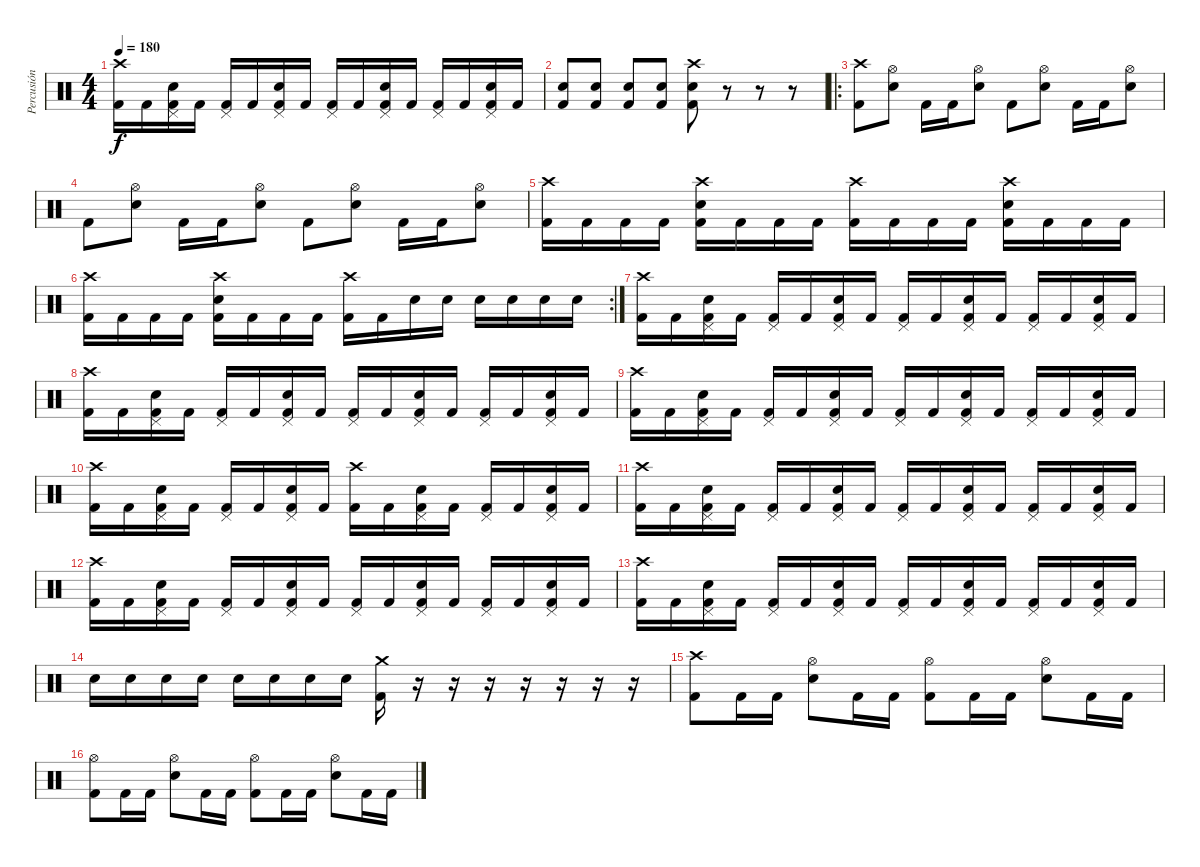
\track ("Percusión" "Percusión") {instrument percussion}
\staff {score}
\articulation defaults
\ts (4 4)
\tempo 180
\clef neutral
\ks c
("Crash high (hit)" "Kick (hit) 2").16{dy f} "Kick (hit) 2".16 ("Pedal Hi-Hat (hit)" "Kick (hit) 2" "Electric Snare (hit)").16 "Kick (hit) 2".16 ("Pedal Hi-Hat (hit)" "Kick (hit) 2").16 "Kick (hit) 2".16 ("Pedal Hi-Hat (hit)" "Kick (hit) 2" "Electric Snare (hit)").16 "Kick (hit) 2".16 ("Pedal Hi-Hat (hit)" "Kick (hit) 2").16 "Kick (hit) 2".16 ("Pedal Hi-Hat (hit)" "Kick (hit) 2" "Electric Snare (hit)").16 "Kick (hit) 2".16 ("Pedal Hi-Hat (hit)" "Kick (hit) 2").16 "Kick (hit) 2".16 ("Pedal Hi-Hat (hit)" "Kick (hit) 2" "Electric Snare (hit)").16 "Kick (hit) 2".16 |
("Kick (hit) 2" "Electric Snare (hit)").8 ("Kick (hit) 2" "Electric Snare (hit)").8 ("Kick (hit) 2" "Electric Snare (hit)").8 ("Kick (hit) 2" "Electric Snare (hit)").8 ("Crash high (hit)" "Kick (hit) 2" "Electric Snare (hit)").8 r.8 r.8 r.8 |
\ro
("Crash high (hit)" "Kick (hit) 2").8 ("Hi-Hat (open)" "Electric Snare (hit)").8 "Kick (hit) 2".16 "Kick (hit) 2".16 ("Hi-Hat (open)" "Electric Snare (hit)").8 "Kick (hit) 2".8 ("Hi-Hat (open)" "Electric Snare (hit)").8 "Kick (hit) 2".16 "Kick (hit) 2".16 ("Hi-Hat (open)" "Electric Snare (hit)").8 |
"Kick (hit) 2".8 ("Hi-Hat (open)" "Electric Snare (hit)").8 "Kick (hit) 2".16 "Kick (hit) 2".16 ("Hi-Hat (open)" "Electric Snare (hit)").8 "Kick (hit) 2".8 ("Hi-Hat (open)" "Electric Snare (hit)").8 "Kick (hit) 2".16 "Kick (hit) 2".16 ("Hi-Hat (open)" "Electric Snare (hit)").8 |
("Crash high (hit)" "Kick (hit) 2").16 "Kick (hit) 2".16 "Kick (hit) 2".16 "Kick (hit) 2".16 ("Crash high (hit)" "Kick (hit) 2" "Electric Snare (hit)").16 "Kick (hit) 2".16 "Kick (hit) 2".16 "Kick (hit) 2".16 ("Crash high (hit)" "Kick (hit) 2").16 "Kick (hit) 2".16 "Kick (hit) 2".16 "Kick (hit) 2".16 ("Crash high (hit)" "Kick (hit) 2" "Electric Snare (hit)").16 "Kick (hit) 2".16 "Kick (hit) 2".16 "Kick (hit) 2".16 |
\rc 2
("Crash high (hit)" "Kick (hit) 2").16 "Kick (hit) 2".16 "Kick (hit) 2".16 "Kick (hit) 2".16 ("Crash high (hit)" "Kick (hit) 2" "Electric Snare (hit)").16 "Kick (hit) 2".16 "Kick (hit) 2".16 "Kick (hit) 2".16 ("Crash high (hit)" "Kick (hit) 2").16 "Kick (hit) 2".16 "Electric Snare (hit)".16 "Electric Snare (hit)".16 "Electric Snare (hit)".16 "Electric Snare (hit)".16 "Electric Snare (hit)".16 "Electric Snare (hit)".16 |
("Crash high (hit)" "Kick (hit) 2").16 "Kick (hit) 2".16 ("Pedal Hi-Hat (hit)" "Kick (hit) 2" "Electric Snare (hit)").16 "Kick (hit) 2".16 ("Pedal Hi-Hat (hit)" "Kick (hit) 2").16 "Kick (hit) 2".16 ("Pedal Hi-Hat (hit)" "Kick (hit) 2" "Electric Snare (hit)").16 "Kick (hit) 2".16 ("Pedal Hi-Hat (hit)" "Kick (hit) 2").16 "Kick (hit) 2".16 ("Pedal Hi-Hat (hit)" "Kick (hit) 2" "Electric Snare (hit)").16 "Kick (hit) 2".16 ("Pedal Hi-Hat (hit)" "Kick (hit) 2").16 "Kick (hit) 2".16 ("Pedal Hi-Hat (hit)" "Kick (hit) 2" "Electric Snare (hit)").16 "Kick (hit) 2".16 |
("Crash high (hit)" "Kick (hit) 2").16 "Kick (hit) 2".16 ("Pedal Hi-Hat (hit)" "Kick (hit) 2" "Electric Snare (hit)").16 "Kick (hit) 2".16 ("Pedal Hi-Hat (hit)" "Kick (hit) 2").16 "Kick (hit) 2".16 ("Pedal Hi-Hat (hit)" "Kick (hit) 2" "Electric Snare (hit)").16 "Kick (hit) 2".16 ("Pedal Hi-Hat (hit)" "Kick (hit) 2").16 "Kick (hit) 2".16 ("Pedal Hi-Hat (hit)" "Kick (hit) 2" "Electric Snare (hit)").16 "Kick (hit) 2".16 ("Pedal Hi-Hat (hit)" "Kick (hit) 2").16 "Kick (hit) 2".16 ("Pedal Hi-Hat (hit)" "Kick (hit) 2" "Electric Snare (hit)").16 "Kick (hit) 2".16 |
("Crash high (hit)" "Kick (hit) 2").16 "Kick (hit) 2".16 ("Pedal Hi-Hat (hit)" "Kick (hit) 2" "Electric Snare (hit)").16 "Kick (hit) 2".16 ("Pedal Hi-Hat (hit)" "Kick (hit) 2").16 "Kick (hit) 2".16 ("Pedal Hi-Hat (hit)" "Kick (hit) 2" "Electric Snare (hit)").16 "Kick (hit) 2".16 ("Pedal Hi-Hat (hit)" "Kick (hit) 2").16 "Kick (hit) 2".16 ("Pedal Hi-Hat (hit)" "Kick (hit) 2" "Electric Snare (hit)").16 "Kick (hit) 2".16 ("Pedal Hi-Hat (hit)" "Kick (hit) 2").16 "Kick (hit) 2".16 ("Pedal Hi-Hat (hit)" "Kick (hit) 2" "Electric Snare (hit)").16 "Kick (hit) 2".16 |
("Crash high (hit)" "Kick (hit) 2").16 "Kick (hit) 2".16 ("Pedal Hi-Hat (hit)" "Kick (hit) 2" "Electric Snare (hit)").16 "Kick (hit) 2".16 ("Pedal Hi-Hat (hit)" "Kick (hit) 2").16 "Kick (hit) 2".16 ("Pedal Hi-Hat (hit)" "Kick (hit) 2" "Electric Snare (hit)").16 "Kick (hit) 2".16 ("Crash high (hit)" "Kick (hit) 2").16 "Kick (hit) 2".16 ("Pedal Hi-Hat (hit)" "Kick (hit) 2" "Electric Snare (hit)").16 "Kick (hit) 2".16 ("Pedal Hi-Hat (hit)" "Kick (hit) 2").16 "Kick (hit) 2".16 ("Pedal Hi-Hat (hit)" "Kick (hit) 2" "Electric Snare (hit)").16 "Kick (hit) 2".16 |
("Crash high (hit)" "Kick (hit) 2").16 "Kick (hit) 2".16 ("Pedal Hi-Hat (hit)" "Kick (hit) 2" "Electric Snare (hit)").16 "Kick (hit) 2".16 ("Pedal Hi-Hat (hit)" "Kick (hit) 2").16 "Kick (hit) 2".16 ("Pedal Hi-Hat (hit)" "Kick (hit) 2" "Electric Snare (hit)").16 "Kick (hit) 2".16 ("Pedal Hi-Hat (hit)" "Kick (hit) 2").16 "Kick (hit) 2".16 ("Pedal Hi-Hat (hit)" "Kick (hit) 2" "Electric Snare (hit)").16 "Kick (hit) 2".16 ("Pedal Hi-Hat (hit)" "Kick (hit) 2").16 "Kick (hit) 2".16 ("Pedal Hi-Hat (hit)" "Kick (hit) 2" "Electric Snare (hit)").16 "Kick (hit) 2".16 |
("Crash high (hit)" "Kick (hit) 2").16 "Kick (hit) 2".16 ("Pedal Hi-Hat (hit)" "Kick (hit) 2" "Electric Snare (hit)").16 "Kick (hit) 2".16 ("Pedal Hi-Hat (hit)" "Kick (hit) 2").16 "Kick (hit) 2".16 ("Pedal Hi-Hat (hit)" "Kick (hit) 2" "Electric Snare (hit)").16 "Kick (hit) 2".16 ("Pedal Hi-Hat (hit)" "Kick (hit) 2").16 "Kick (hit) 2".16 ("Pedal Hi-Hat (hit)" "Kick (hit) 2" "Electric Snare (hit)").16 "Kick (hit) 2".16 ("Pedal Hi-Hat (hit)" "Kick (hit) 2").16 "Kick (hit) 2".16 ("Pedal Hi-Hat (hit)" "Kick (hit) 2" "Electric Snare (hit)").16 "Kick (hit) 2".16 |
("Crash high (hit)" "Kick (hit) 2").16 "Kick (hit) 2".16 ("Pedal Hi-Hat (hit)" "Kick (hit) 2" "Electric Snare (hit)").16 "Kick (hit) 2".16 ("Pedal Hi-Hat (hit)" "Kick (hit) 2").16 "Kick (hit) 2".16 ("Pedal Hi-Hat (hit)" "Kick (hit) 2" "Electric Snare (hit)").16 "Kick (hit) 2".16 ("Pedal Hi-Hat (hit)" "Kick (hit) 2").16 "Kick (hit) 2".16 ("Pedal Hi-Hat (hit)" "Kick (hit) 2" "Electric Snare (hit)").16 "Kick (hit) 2".16 ("Pedal Hi-Hat (hit)" "Kick (hit) 2").16 "Kick (hit) 2".16 ("Pedal Hi-Hat (hit)" "Kick (hit) 2" "Electric Snare (hit)").16 "Kick (hit) 2".16 |
"Electric Snare (hit)".16 "Electric Snare (hit)".16 "Electric Snare (hit)".16 "Electric Snare (hit)".16 "Electric Snare (hit)".16 "Electric Snare (hit)".16 "Electric Snare (hit)".16 "Electric Snare (hit)".16 ("Crash medium (hit)" "Kick (hit) 2").16 r.16 r.16 r.16 r.16 r.16 r.16 r.16 |
("Crash high (hit)" "Kick (hit) 2").8 "Kick (hit) 2".16 "Kick (hit) 2".16 ("Hi-Hat (open)" "Electric Snare (hit)").8 "Kick (hit) 2".16 "Kick (hit) 2".16 ("Hi-Hat (open)" "Kick (hit) 2").8 "Kick (hit) 2".16 "Kick (hit) 2".16 ("Hi-Hat (open)" "Electric Snare (hit)").8 "Kick (hit) 2".16 "Kick (hit) 2".16 |
("Hi-Hat (open)" "Kick (hit) 2").8 "Kick (hit) 2".16 "Kick (hit) 2".16 ("Hi-Hat (open)" "Electric Snare (hit)").8 "Kick (hit) 2".16 "Kick (hit) 2".16 ("Hi-Hat (open)" "Kick (hit) 2").8 "Kick (hit) 2".16 "Kick (hit) 2".16 ("Hi-Hat (open)" "Electric Snare (hit)").8 "Kick (hit) 2".16 "Kick (hit) 2".16
